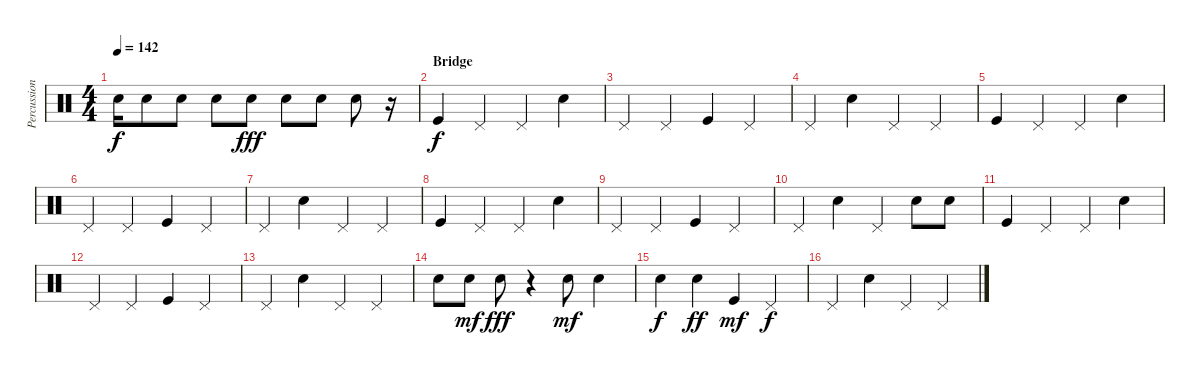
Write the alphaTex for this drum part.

\track ("Percussion" "Percussion") {instrument percussion}
\staff {score}
\articulation defaults
\ts (4 4)
\tempo 142
\clef neutral
\ks c "Snare (hit)"{t}.16{dy f} "Snare (hit) 2".8 "Snare (hit) 2".8 "Snare (hit) 2".8 "Snare (hit) 2".8{dy fff} "Snare (hit) 2".8 "Snare (hit) 2".8 "Snare (hit) 2".8
r.16 |
\section ("" "Bridge")
"Kick (hit)".4{dy f} "Pedal Hi-Hat (hit)".4 "Pedal Hi-Hat (hit)".4 "Electric Snare (hit)".4 |
"Pedal Hi-Hat (hit)".4 "Pedal Hi-Hat (hit)".4 "Kick (hit)".4 "Pedal Hi-Hat (hit)".4 |
"Pedal Hi-Hat (hit)".4 "Electric Snare (hit)".4 "Pedal Hi-Hat (hit)".4 "Pedal Hi-Hat (hit)".4 |
"Kick (hit)".4 "Pedal Hi-Hat (hit)".4 "Pedal Hi-Hat (hit)".4 "Electric Snare (hit)".4 |
"Pedal Hi-Hat (hit)".4 "Pedal Hi-Hat (hit)".4 "Kick (hit)".4 "Pedal Hi-Hat (hit)".4 |
"Pedal Hi-Hat (hit)".4 "Electric Snare (hit)".4 "Pedal Hi-Hat (hit)".4 "Pedal Hi-Hat (hit)".4 |
"Kick (hit)".4 "Pedal Hi-Hat (hit)".4 "Pedal Hi-Hat (hit)".4 "Electric Snare (hit)".4 |
"Pedal Hi-Hat (hit)".4 "Pedal Hi-Hat (hit)".4 "Kick (hit)".4 "Pedal Hi-Hat (hit)".4 |
"Pedal Hi-Hat (hit)".4 "Electric Snare (hit)".4 "Pedal Hi-Hat (hit)".4 "Snare (hit) 2".8 "Snare (hit) 2".8 |
"Kick (hit)".4 "Pedal Hi-Hat (hit)".4 "Pedal Hi-Hat (hit)".4 "Electric Snare (hit)".4 |
"Pedal Hi-Hat (hit)".4 "Pedal Hi-Hat (hit)".4 "Kick (hit)".4 "Pedal Hi-Hat (hit)".4 |
"Pedal Hi-Hat (hit)".4 "Electric Snare (hit)".4 "Pedal Hi-Hat (hit)".4 "Pedal Hi-Hat (hit)".4 |
"Snare (hit) 2".8 "Snare (hit) 2".8{dy mf} "Snare (hit) 2".8{dy fff} r.4 "Snare (hit) 2".8{dy mf} "Snare (hit) 2".4 |
"Snare (hit) 2".4{dy f} "Snare (hit) 2".4{dy ff} "Kick (hit)".4{dy mf} "Pedal Hi-Hat (hit)".4{dy f} |
"Pedal Hi-Hat (hit)".4 "Electric Snare (hit)".4 "Pedal Hi-Hat (hit)".4 "Pedal Hi-Hat (hit)".4
